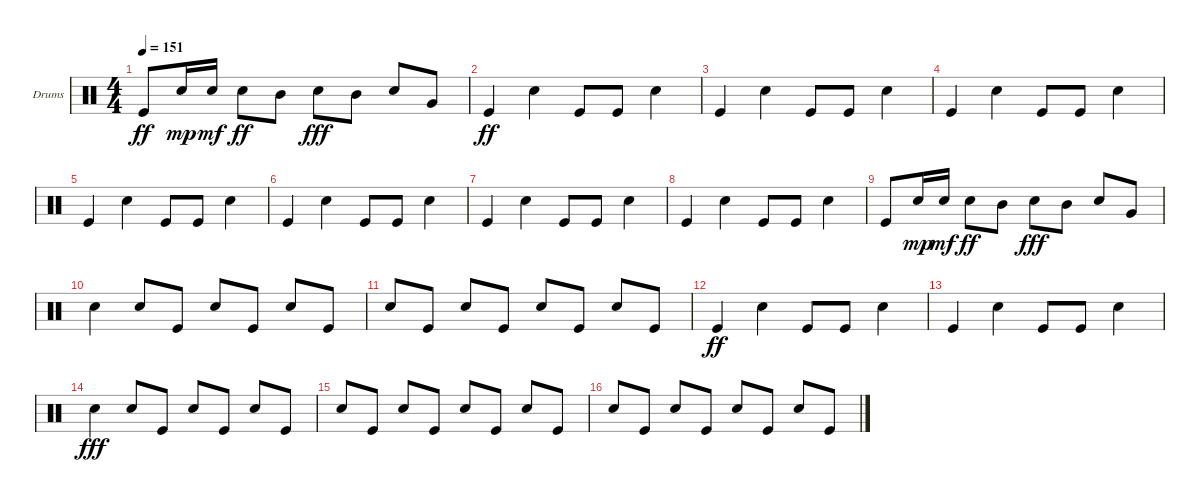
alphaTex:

\defaultSystemsLayout 4
\bracketExtendMode groupsimilarinstruments
\firstSystemTrackNameOrientation horizontal
\otherSystemsTrackNameOrientation horizontal
\track ("Helders" "Drums") {instrument percussion}
\staff {score}
\articulation defaults
\ts (4 4)
\tempo 151
\clef neutral
\ks c "Kick (hit)".8{dy ff} "Snare (hit) 2".16{dy mp} "Snare (hit) 2".16{dy mf} "Snare (hit) 2".8{dy ff} "Mid Tom (hit)".8 "Snare (hit) 2".8{dy fff} "Mid Tom (hit)".8 "Snare (hit) 2".8 "Very Low Tom (hit)".8
|
"Kick (hit)".4{dy ff} "Snare (hit) 2".4 "Kick (hit)".8 "Kick (hit)".8 "Snare (hit) 2".4 |
"Kick (hit)".4 "Snare (hit) 2".4 "Kick (hit)".8 "Kick (hit)".8 "Snare (hit) 2".4 |
"Kick (hit)".4 "Snare (hit) 2".4 "Kick (hit)".8 "Kick (hit)".8 "Snare (hit) 2".4 |
"Kick (hit)".4 "Snare (hit) 2".4 "Kick (hit)".8 "Kick (hit)".8 "Snare (hit) 2".4 |
"Kick (hit)".4 "Snare (hit) 2".4 "Kick (hit)".8 "Kick (hit)".8 "Snare (hit) 2".4 |
"Kick (hit)".4 "Snare (hit) 2".4 "Kick (hit)".8 "Kick (hit)".8 "Snare (hit) 2".4 |
"Kick (hit)".4 "Snare (hit) 2".4 "Kick (hit)".8 "Kick (hit)".8 "Snare (hit) 2".4 |
"Kick (hit)".8 "Snare (hit) 2".16{dy mp} "Snare (hit) 2".16{dy mf} "Snare (hit) 2".8{dy ff} "Mid Tom (hit)".8 "Snare (hit) 2".8{dy fff} "Mid Tom (hit)".8 "Snare (hit) 2".8 "Very Low Tom (hit)".8 |
"Snare (hit) 2".4 "Snare (hit) 2".8 "Kick (hit)".8 "Snare (hit) 2".8 "Kick (hit)".8 "Snare (hit) 2".8 "Kick (hit)".8 |
"Snare (hit) 2".8 "Kick (hit)".8 "Snare (hit) 2".8 "Kick (hit)".8 "Snare (hit) 2".8 "Kick (hit)".8 "Snare (hit) 2".8 "Kick (hit)".8 |
"Kick (hit)".4{dy ff} "Snare (hit) 2".4 "Kick (hit)".8 "Kick (hit)".8 "Snare (hit) 2".4 |
"Kick (hit)".4 "Snare (hit) 2".4 "Kick (hit)".8 "Kick (hit)".8 "Snare (hit) 2".4 |
"Snare (hit) 2".4{dy fff} "Snare (hit) 2".8 "Kick (hit)".8 "Snare (hit) 2".8 "Kick (hit)".8 "Snare (hit) 2".8 "Kick (hit)".8 |
"Snare (hit) 2".8 "Kick (hit)".8 "Snare (hit) 2".8 "Kick (hit)".8 "Snare (hit) 2".8 "Kick (hit)".8 "Snare (hit) 2".8 "Kick (hit)".8 |
"Snare (hit) 2".8 "Kick (hit)".8 "Snare (hit) 2".8 "Kick (hit)".8 "Snare (hit) 2".8 "Kick (hit)".8 "Snare (hit) 2".8 "Kick (hit)".8
